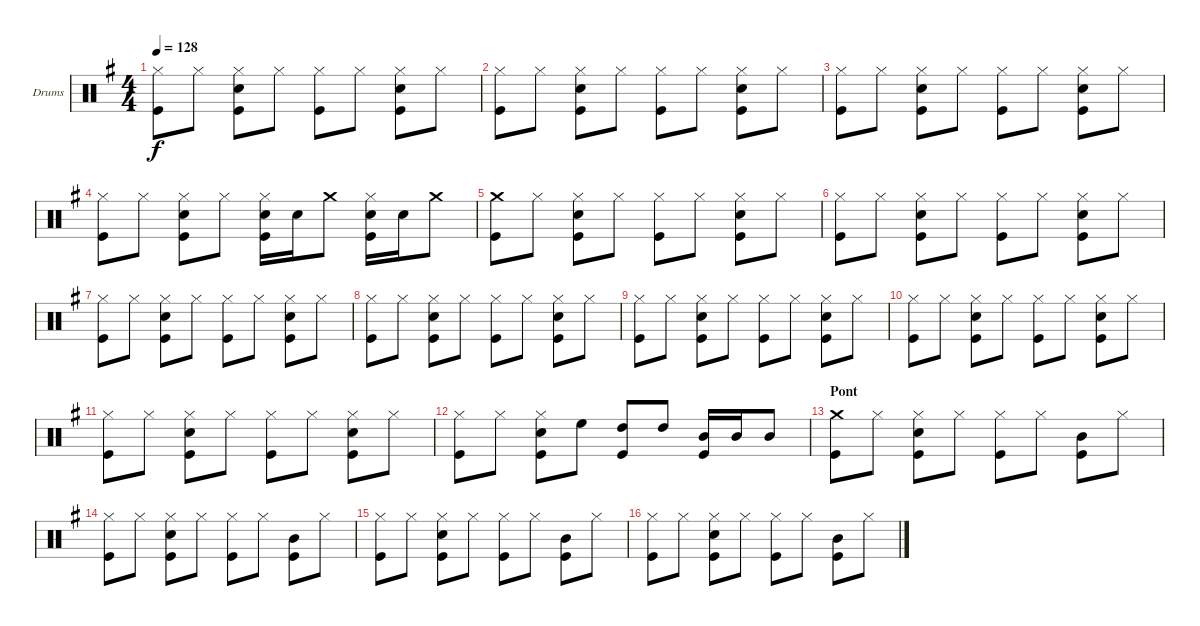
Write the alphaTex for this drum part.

\bracketExtendMode groupsimilarinstruments
\firstSystemTrackNameOrientation horizontal
\otherSystemsTrackNameOrientation horizontal
\track ("Drumkit" "Drums") {multiBarRest instrument percussion}
\staff {score}
\articulation defaults
\ts (4 4)
\tempo 128
\clef neutral
\ks eminor
("Hi-Hat (closed)" "Kick (hit)").8{dy f} "Hi-Hat (closed)".8 ("Hi-Hat (closed)" "Snare (hit) 2" "Kick (hit)").8 "Hi-Hat (closed)".8 ("Hi-Hat (closed)" "Kick (hit)").8 "Hi-Hat (closed)".8 ("Hi-Hat (closed)" "Snare (hit) 2" "Kick (hit)").8 "Hi-Hat (closed)".8 |
("Hi-Hat (closed)" "Kick (hit)").8 "Hi-Hat (closed)".8 ("Hi-Hat (closed)" "Snare (hit) 2" "Kick (hit)").8 "Hi-Hat (closed)".8 ("Hi-Hat (closed)" "Kick (hit)").8 "Hi-Hat (closed)".8 ("Hi-Hat (closed)" "Snare (hit) 2" "Kick (hit)").8 "Hi-Hat (closed)".8 |
("Hi-Hat (closed)" "Kick (hit)").8 "Hi-Hat (closed)".8 ("Hi-Hat (closed)" "Snare (hit) 2" "Kick (hit)").8 "Hi-Hat (closed)".8 ("Hi-Hat (closed)" "Kick (hit)").8 "Hi-Hat (closed)".8 ("Hi-Hat (closed)" "Snare (hit) 2" "Kick (hit)").8 "Hi-Hat (closed)".8 |
("Hi-Hat (closed)" "Kick (hit)").8 "Hi-Hat (closed)".8 ("Hi-Hat (closed)" "Snare (hit) 2" "Kick (hit)").8 "Hi-Hat (closed)".8 ("Hi-Hat (closed)" "Snare (hit) 2" "Kick (hit)").16 "Snare (hit) 2".16 "Crash medium (hit)".8 ("Hi-Hat (closed)" "Snare (hit) 2" "Kick (hit)").16 "Snare (hit) 2".16 "Crash medium (hit)".8 |
("Crash medium (hit)" "Kick (hit)").8 "Hi-Hat (closed)".8 ("Hi-Hat (closed)" "Snare (hit) 2" "Kick (hit)").8 "Hi-Hat (closed)".8 ("Hi-Hat (closed)" "Kick (hit)").8 "Hi-Hat (closed)".8 ("Hi-Hat (closed)" "Snare (hit) 2" "Kick (hit)").8 "Hi-Hat (closed)".8 |
("Hi-Hat (closed)" "Kick (hit)").8 "Hi-Hat (closed)".8 ("Hi-Hat (closed)" "Snare (hit) 2" "Kick (hit)").8 "Hi-Hat (closed)".8 ("Hi-Hat (closed)" "Kick (hit)").8 "Hi-Hat (closed)".8 ("Hi-Hat (closed)" "Snare (hit) 2" "Kick (hit)").8 "Hi-Hat (closed)".8 |
("Hi-Hat (closed)" "Kick (hit)").8 "Hi-Hat (closed)".8 ("Hi-Hat (closed)" "Snare (hit) 2" "Kick (hit)").8 "Hi-Hat (closed)".8 ("Hi-Hat (closed)" "Kick (hit)").8 "Hi-Hat (closed)".8 ("Hi-Hat (closed)" "Snare (hit) 2" "Kick (hit)").8 "Hi-Hat (closed)".8 |
("Hi-Hat (closed)" "Kick (hit)").8 "Hi-Hat (closed)".8 ("Hi-Hat (closed)" "Snare (hit) 2" "Kick (hit)").8 "Hi-Hat (closed)".8 ("Hi-Hat (closed)" "Kick (hit)").8 "Hi-Hat (closed)".8 ("Hi-Hat (closed)" "Snare (hit) 2" "Kick (hit)").8 "Hi-Hat (closed)".8 |
("Hi-Hat (closed)" "Kick (hit)").8 "Hi-Hat (closed)".8 ("Hi-Hat (closed)" "Snare (hit) 2" "Kick (hit)").8 "Hi-Hat (closed)".8 ("Hi-Hat (closed)" "Kick (hit)").8 "Hi-Hat (closed)".8 ("Hi-Hat (closed)" "Snare (hit) 2" "Kick (hit)").8 "Hi-Hat (closed)".8 |
("Hi-Hat (closed)" "Kick (hit)").8 "Hi-Hat (closed)".8 ("Hi-Hat (closed)" "Snare (hit) 2" "Kick (hit)").8 "Hi-Hat (closed)".8 ("Hi-Hat (closed)" "Kick (hit)").8 "Hi-Hat (closed)".8 ("Hi-Hat (closed)" "Snare (hit) 2" "Kick (hit)").8 "Hi-Hat (closed)".8 |
("Hi-Hat (closed)" "Kick (hit)").8 "Hi-Hat (closed)".8 ("Hi-Hat (closed)" "Snare (hit) 2" "Kick (hit)").8 "Hi-Hat (closed)".8 ("Hi-Hat (closed)" "Kick (hit)").8 "Hi-Hat (closed)".8 ("Hi-Hat (closed)" "Snare (hit) 2" "Kick (hit)").8 "Hi-Hat (closed)".8 |
("Hi-Hat (closed)" "Kick (hit)").8 "Hi-Hat (closed)".8 ("Hi-Hat (closed)" "Snare (hit) 2" "Kick (hit)").8 "High Floor Tom (hit)".8 ("High Tom (hit)" "Kick (hit)").8 "High Tom (hit)".8 ("Mid Tom (hit)" "Kick (hit)").16 "Mid Tom (hit)".16 "Mid Tom (hit)".8 |
\section ("" "Pont")
("Crash medium (hit)" "Kick (hit)").8 "Hi-Hat (closed)".8 ("Hi-Hat (closed)" "Snare (hit) 2" "Kick (hit)").8 "Hi-Hat (closed)".8 ("Hi-Hat (closed)" "Kick (hit)").8 "Hi-Hat (closed)".8 ("Mid Tom (hit)" "Kick (hit)").8 "Hi-Hat (closed)".8 |
("Hi-Hat (closed)" "Kick (hit)").8 "Hi-Hat (closed)".8 ("Hi-Hat (closed)" "Snare (hit) 2" "Kick (hit)").8 "Hi-Hat (closed)".8 ("Hi-Hat (closed)" "Kick (hit)").8 "Hi-Hat (closed)".8 ("Mid Tom (hit)" "Kick (hit)").8 "Hi-Hat (closed)".8 |
("Hi-Hat (closed)" "Kick (hit)").8 "Hi-Hat (closed)".8 ("Hi-Hat (closed)" "Snare (hit) 2" "Kick (hit)").8 "Hi-Hat (closed)".8 ("Hi-Hat (closed)" "Kick (hit)").8 "Hi-Hat (closed)".8 ("Mid Tom (hit)" "Kick (hit)").8 "Hi-Hat (closed)".8 |
("Hi-Hat (closed)" "Kick (hit)").8 "Hi-Hat (closed)".8 ("Hi-Hat (closed)" "Snare (hit) 2" "Kick (hit)").8 "Hi-Hat (closed)".8 ("Hi-Hat (closed)" "Kick (hit)").8 "Hi-Hat (closed)".8 ("Mid Tom (hit)" "Kick (hit)").8 "Hi-Hat (closed)".8
